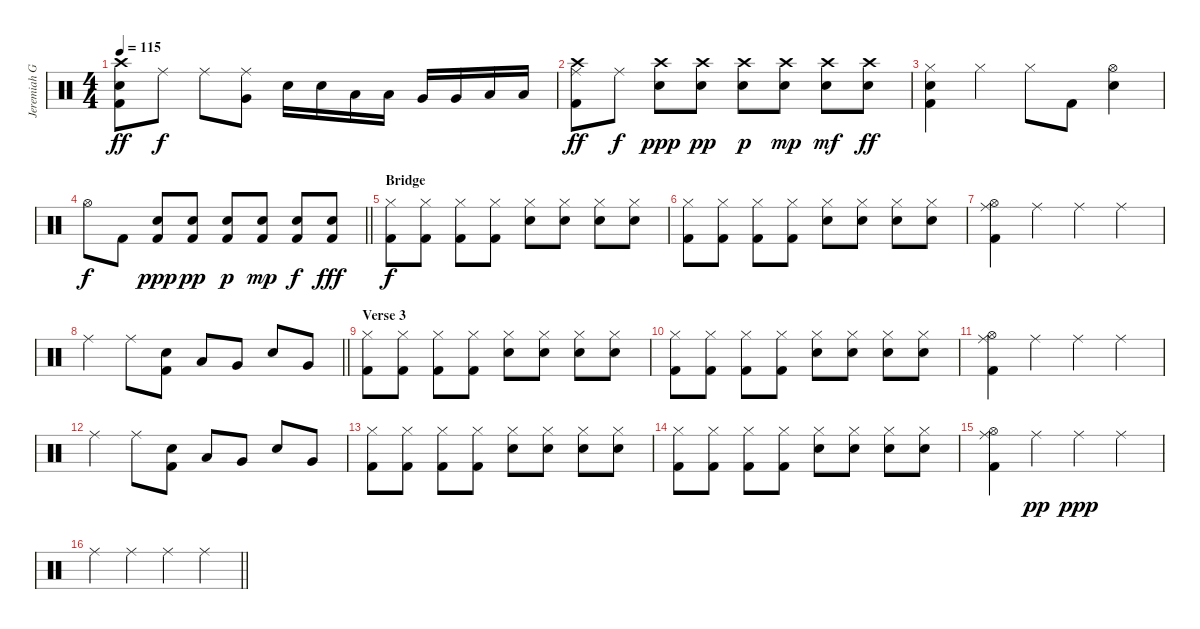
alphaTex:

\track ("Jeremiah Green" "Jeremiah G") {instrument percussion}
\staff {score}
\articulation defaults
\ts (4 4)
\tempo 115
\clef neutral
\ks c
("Crash high (hit)" "Electric Snare (hit)" "Kick (hit) 2").8{dy ff} "Ride (middle)".8{dy f} "Ride (middle)".8 ("Ride (middle)" "Very Low Tom (hit)").8 "Electric Snare (hit)".16 "Electric Snare (hit)".16 "Low Tom (hit)".16 "Low Tom (hit)".16 "Very Low Tom (hit)".16 "Very Low Tom (hit)".16 "Low Floor Tom (hit)".16 "Low Floor Tom (hit)".16 |
("Crash high (hit)" "Ride (middle)" "Kick (hit) 2").8{dy ff} "Ride (middle)".8{dy f} ("Crash high (hit)" "Electric Snare (hit)").8{dy ppp} ("Crash high (hit)" "Electric Snare (hit)").8{dy pp} ("Crash high (hit)" "Electric Snare (hit)").8{dy p} ("Crash high (hit)" "Electric Snare (hit)").8{dy mp} ("Crash high (hit)" "Electric Snare (hit)").8{dy mf} ("Crash high (hit)" "Electric Snare (hit)").8{dy ff} |
("Hi-Hat (closed)" "Electric Snare (hit)" "Kick (hit) 2").4 "Hi-Hat (closed)".4 "Hi-Hat (closed)".8 "Kick (hit) 2".8 ("Hi-Hat (open)" "Electric Snare (hit)").4 |
\barLineRight lightlight "Hi-Hat (open)".8{dy f} "Kick (hit) 2".8
("Electric Snare (hit)" "Kick (hit) 2").8{dy ppp} ("Electric Snare (hit)" "Kick (hit) 2").8{dy pp} ("Electric Snare (hit)" "Kick (hit) 2").8{dy p} ("Electric Snare (hit)" "Kick (hit) 2").8{dy mp} ("Electric Snare (hit)" "Kick (hit) 2").8{dy f} ("Electric Snare (hit)" "Kick (hit) 2").8{dy fff} |
\section ("" "Bridge")
("Hi-Hat (closed)" "Kick (hit) 2").8{dy f} ("Hi-Hat (closed)" "Kick (hit) 2").8 ("Hi-Hat (closed)" "Kick (hit) 2").8 ("Hi-Hat (closed)" "Kick (hit) 2").8 ("Hi-Hat (closed)" "Electric Snare (hit)").8 ("Hi-Hat (closed)" "Electric Snare (hit)").8 ("Hi-Hat (closed)" "Electric Snare (hit)").8 ("Hi-Hat (closed)" "Electric Snare (hit)").8 |
("Hi-Hat (closed)" "Kick (hit) 2").8 ("Hi-Hat (closed)" "Kick (hit) 2").8 ("Hi-Hat (closed)" "Kick (hit) 2").8 ("Hi-Hat (closed)" "Kick (hit) 2").8 ("Hi-Hat (closed)" "Electric Snare (hit)").8 ("Hi-Hat (closed)" "Electric Snare (hit)").8 ("Hi-Hat (closed)" "Electric Snare (hit)").8 ("Hi-Hat (closed)" "Electric Snare (hit)").8 |
("Ride (middle)" "Hi-Hat (open)" "Kick (hit) 2").4 "Ride (middle)".4 "Ride (middle)".4 "Ride (middle)".4 |
\barLineRight lightlight "Ride (middle)".4 "Ride (middle)".8
("Electric Snare (hit)" "Kick (hit) 2").8 "Low Tom (hit)".8 "Very Low Tom (hit)".8 "Electric Snare (hit)".8 "Very Low Tom (hit)".8 |
\section ("" "Verse 3")
("Hi-Hat (closed)" "Kick (hit) 2").8 ("Hi-Hat (closed)" "Kick (hit) 2").8 ("Hi-Hat (closed)" "Kick (hit) 2").8 ("Hi-Hat (closed)" "Kick (hit) 2").8 ("Hi-Hat (closed)" "Electric Snare (hit)").8 ("Hi-Hat (closed)" "Electric Snare (hit)").8 ("Hi-Hat (closed)" "Electric Snare (hit)").8 ("Hi-Hat (closed)" "Electric Snare (hit)").8 |
("Hi-Hat (closed)" "Kick (hit) 2").8 ("Hi-Hat (closed)" "Kick (hit) 2").8 ("Hi-Hat (closed)" "Kick (hit) 2").8 ("Hi-Hat (closed)" "Kick (hit) 2").8 ("Hi-Hat (closed)" "Electric Snare (hit)").8 ("Hi-Hat (closed)" "Electric Snare (hit)").8 ("Hi-Hat (closed)" "Electric Snare (hit)").8 ("Hi-Hat (closed)" "Electric Snare (hit)").8 |
("Ride (middle)" "Hi-Hat (open)" "Kick (hit) 2").4 "Ride (middle)".4 "Ride (middle)".4 "Ride (middle)".4 |
"Ride (middle)".4 "Ride (middle)".8 ("Electric Snare (hit)" "Kick (hit) 2").8 "Low Tom (hit)".8 "Very Low Tom (hit)".8 "Electric Snare (hit)".8 "Very Low Tom (hit)".8 |
("Hi-Hat (closed)" "Kick (hit) 2").8 ("Hi-Hat (closed)" "Kick (hit) 2").8 ("Hi-Hat (closed)" "Kick (hit) 2").8 ("Hi-Hat (closed)" "Kick (hit) 2").8 ("Hi-Hat (closed)" "Electric Snare (hit)").8 ("Hi-Hat (closed)" "Electric Snare (hit)").8 ("Hi-Hat (closed)" "Electric Snare (hit)").8 ("Hi-Hat (closed)" "Electric Snare (hit)").8 |
("Hi-Hat (closed)" "Kick (hit) 2").8 ("Hi-Hat (closed)" "Kick (hit) 2").8 ("Hi-Hat (closed)" "Kick (hit) 2").8 ("Hi-Hat (closed)" "Kick (hit) 2").8 ("Hi-Hat (closed)" "Electric Snare (hit)").8 ("Hi-Hat (closed)" "Electric Snare (hit)").8 ("Hi-Hat (closed)" "Electric Snare (hit)").8 ("Hi-Hat (closed)" "Electric Snare (hit)").8 |
("Ride (middle)" "Hi-Hat (open)" "Kick (hit) 2").4 "Ride (middle)".4{dy pp} "Ride (middle)".4{dy ppp} "Ride (middle)".4 |
\barLineRight lightlight "Ride (middle)".4 "Ride (middle)".4 "Ride (middle)".4 "Ride (middle)".4
